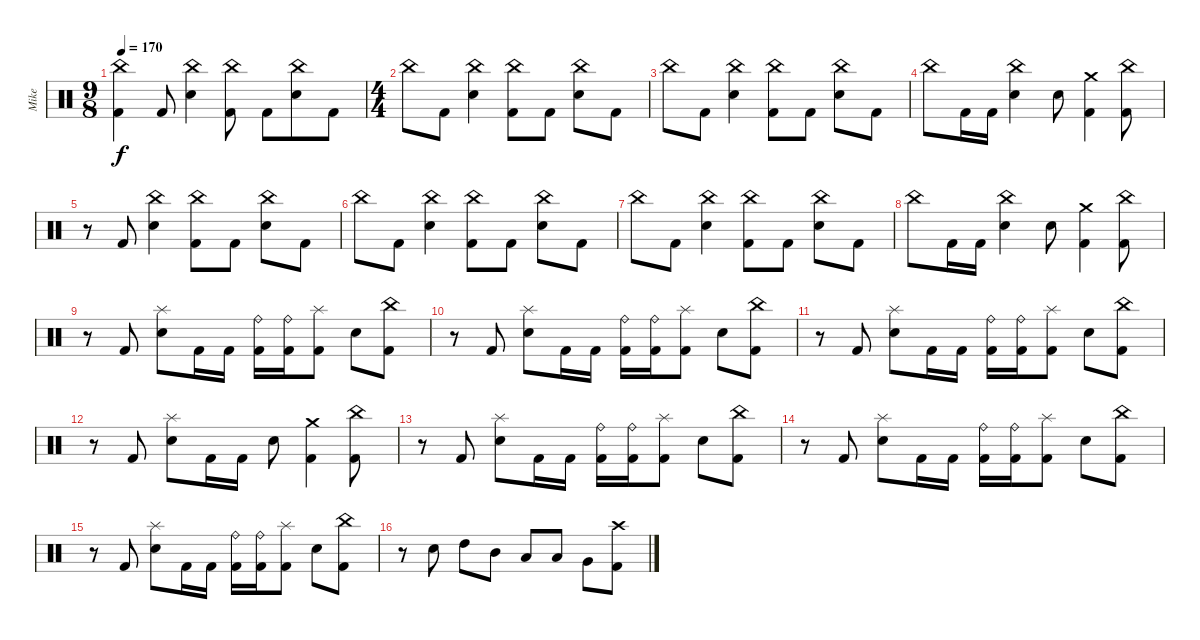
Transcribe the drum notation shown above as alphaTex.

\track ("Mike" "Mike") {instrument percussion}
\staff {score}
\articulation defaults
\ts (9 8)
\tempo 170
\clef neutral
\ks c
("Kick (hit) 2" "China (hit)").4{dy f} "Kick (hit) 2".8 ("Electric Snare (hit)" "China (hit)").4 ("Kick (hit) 2" "China (hit)").8 "Kick (hit) 2".8 ("Electric Snare (hit)" "China (hit)").8 "Kick (hit) 2".8 |
\ts (4 4)
"China (hit)".8 "Kick (hit) 2".8 ("Electric Snare (hit)" "China (hit)").4 ("Kick (hit) 2" "China (hit)").8 "Kick (hit) 2".8 ("Electric Snare (hit)" "China (hit)").8 "Kick (hit) 2".8 |
"China (hit)".8 "Kick (hit) 2".8 ("Electric Snare (hit)" "China (hit)").4 ("Kick (hit) 2" "China (hit)").8 "Kick (hit) 2".8 ("Electric Snare (hit)" "China (hit)").8 "Kick (hit) 2".8 |
"China (hit)".8 "Kick (hit) 2".16 "Kick (hit) 2".16 ("Electric Snare (hit)" "China (hit)").4 "Electric Snare (hit)".8 ("Kick (hit) 2" "Crash medium (hit)").4 ("Kick (hit) 2" "China (hit)").8 |
r.8 "Kick (hit) 2".8 ("Electric Snare (hit)" "China (hit)").4 ("Kick (hit) 2" "China (hit)").8 "Kick (hit) 2".8 ("Electric Snare (hit)" "China (hit)").8 "Kick (hit) 2".8 |
"China (hit)".8 "Kick (hit) 2".8 ("Electric Snare (hit)" "China (hit)").4 ("Kick (hit) 2" "China (hit)").8 "Kick (hit) 2".8 ("Electric Snare (hit)" "China (hit)").8 "Kick (hit) 2".8 |
"China (hit)".8 "Kick (hit) 2".8 ("Electric Snare (hit)" "China (hit)").4 ("Kick (hit) 2" "China (hit)").8 "Kick (hit) 2".8 ("Electric Snare (hit)" "China (hit)").8 "Kick (hit) 2".8 |
"China (hit)".8 "Kick (hit) 2".16 "Kick (hit) 2".16 ("Electric Snare (hit)" "China (hit)").4 "Electric Snare (hit)".8 ("Kick (hit) 2" "Crash medium (hit)").4 ("Kick (hit) 2" "China (hit)").8 |
r.8 "Kick (hit) 2".8 ("Electric Snare (hit)" "Splash (hit)").8 "Kick (hit) 2".16 "Kick (hit) 2".16 ("Kick (hit) 2" "Ride (bell)").16 ("Kick (hit) 2" "Ride (bell)").16 ("Kick (hit) 2" "Splash (hit)").8 "Electric Snare (hit)".8 ("Kick (hit) 2" "China (hit)").8 |
r.8 "Kick (hit) 2".8 ("Electric Snare (hit)" "Splash (hit)").8 "Kick (hit) 2".16 "Kick (hit) 2".16 ("Kick (hit) 2" "Ride (bell)").16 ("Kick (hit) 2" "Ride (bell)").16 ("Kick (hit) 2" "Splash (hit)").8 "Electric Snare (hit)".8 ("Kick (hit) 2" "China (hit)").8 |
r.8 "Kick (hit) 2".8 ("Electric Snare (hit)" "Splash (hit)").8 "Kick (hit) 2".16 "Kick (hit) 2".16 ("Kick (hit) 2" "Ride (bell)").16 ("Kick (hit) 2" "Ride (bell)").16 ("Kick (hit) 2" "Splash (hit)").8 "Electric Snare (hit)".8 ("Kick (hit) 2" "China (hit)").8 |
r.8 "Kick (hit) 2".8 ("Electric Snare (hit)" "Splash (hit)").8 "Kick (hit) 2".16 "Kick (hit) 2".16 "Electric Snare (hit)".8 ("Kick (hit) 2" "Crash medium (hit)").4 ("Kick (hit) 2" "China (hit)").8 |
r.8 "Kick (hit) 2".8 ("Electric Snare (hit)" "Splash (hit)").8 "Kick (hit) 2".16 "Kick (hit) 2".16 ("Kick (hit) 2" "Ride (bell)").16 ("Kick (hit) 2" "Ride (bell)").16 ("Kick (hit) 2" "Splash (hit)").8 "Electric Snare (hit)".8 ("Kick (hit) 2" "China (hit)").8 |
r.8 "Kick (hit) 2".8 ("Electric Snare (hit)" "Splash (hit)").8 "Kick (hit) 2".16 "Kick (hit) 2".16 ("Kick (hit) 2" "Ride (bell)").16 ("Kick (hit) 2" "Ride (bell)").16 ("Kick (hit) 2" "Splash (hit)").8 "Electric Snare (hit)".8 ("Kick (hit) 2" "China (hit)").8 |
r.8 "Kick (hit) 2".8 ("Electric Snare (hit)" "Splash (hit)").8 "Kick (hit) 2".16 "Kick (hit) 2".16 ("Kick (hit) 2" "Ride (bell)").16 ("Kick (hit) 2" "Ride (bell)").16 ("Kick (hit) 2" "Splash (hit)").8 "Electric Snare (hit)".8 ("Kick (hit) 2" "China (hit)").8 |
r.8 "Electric Snare (hit)".8 "High Tom (hit)".8 "Mid Tom (hit)".8 "Low Tom (hit)".8 "Low Tom (hit)".8 "Very Low Tom (hit)".8 ("Kick (hit) 2" "Crash high (hit)").8
